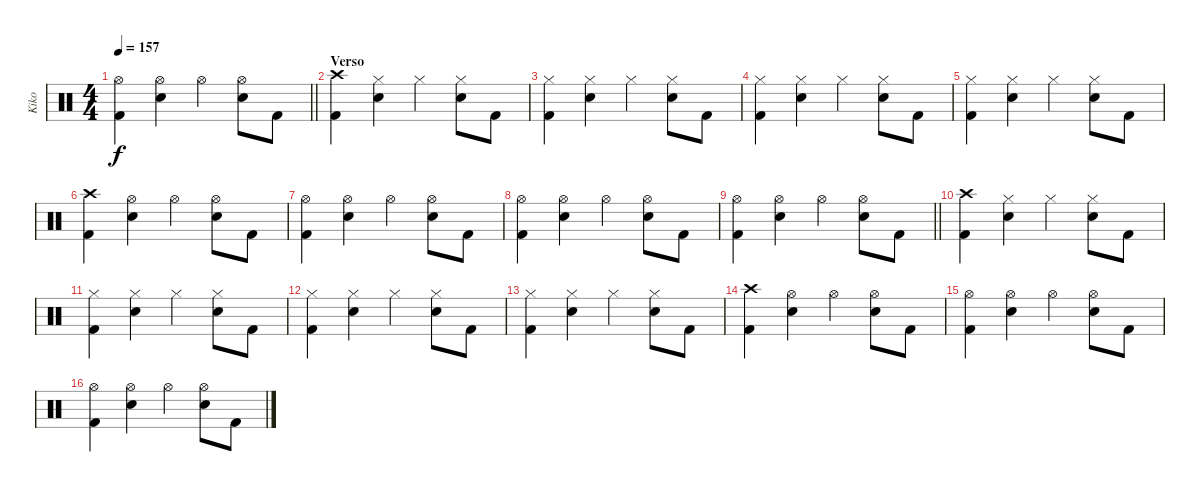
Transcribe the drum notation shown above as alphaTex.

\track ("Kiko" "Kiko") {instrument percussion}
\staff {score}
\articulation defaults
\ts (4 4)
\tempo 157
\clef neutral
\barLineRight lightlight
\ks c
("Hi-Hat (open)" "Kick (hit) 2").4{dy f} ("Hi-Hat (open)" "Electric Snare (hit)").4 "Hi-Hat (open)".4 ("Hi-Hat (open)" "Electric Snare (hit)").8 "Kick (hit) 2".8 |
\section ("" "Verso")
("Crash high (hit)" "Kick (hit) 2").4 ("Hi-Hat (closed)" "Electric Snare (hit)").4 "Hi-Hat (closed)".4 ("Hi-Hat (closed)" "Electric Snare (hit)").8 "Kick (hit) 2".8 |
("Hi-Hat (closed)" "Kick (hit) 2").4 ("Hi-Hat (closed)" "Electric Snare (hit)").4 "Hi-Hat (closed)".4 ("Hi-Hat (closed)" "Electric Snare (hit)").8 "Kick (hit) 2".8 |
("Hi-Hat (closed)" "Kick (hit) 2").4 ("Hi-Hat (closed)" "Electric Snare (hit)").4 "Hi-Hat (closed)".4 ("Hi-Hat (closed)" "Electric Snare (hit)").8 "Kick (hit) 2".8 |
("Hi-Hat (closed)" "Kick (hit) 2").4 ("Hi-Hat (closed)" "Electric Snare (hit)").4 "Hi-Hat (closed)".4 ("Hi-Hat (closed)" "Electric Snare (hit)").8 "Kick (hit) 2".8 |
("Crash high (hit)" "Kick (hit) 2").4 ("Hi-Hat (open)" "Electric Snare (hit)").4 "Hi-Hat (open)".4 ("Hi-Hat (open)" "Electric Snare (hit)").8 "Kick (hit) 2".8 |
("Hi-Hat (open)" "Kick (hit) 2").4 ("Hi-Hat (open)" "Electric Snare (hit)").4 "Hi-Hat (open)".4 ("Hi-Hat (open)" "Electric Snare (hit)").8 "Kick (hit) 2".8 |
("Hi-Hat (open)" "Kick (hit) 2").4 ("Hi-Hat (open)" "Electric Snare (hit)").4 "Hi-Hat (open)".4 ("Hi-Hat (open)" "Electric Snare (hit)").8 "Kick (hit) 2".8 |
\barLineRight lightlight
("Hi-Hat (open)" "Kick (hit) 2").4 ("Hi-Hat (open)" "Electric Snare (hit)").4 "Hi-Hat (open)".4 ("Hi-Hat (open)" "Electric Snare (hit)").8 "Kick (hit) 2".8 |
("Crash high (hit)" "Kick (hit) 2").4 ("Hi-Hat (closed)" "Electric Snare (hit)").4 "Hi-Hat (closed)".4 ("Hi-Hat (closed)" "Electric Snare (hit)").8 "Kick (hit) 2".8 |
("Hi-Hat (closed)" "Kick (hit) 2").4 ("Hi-Hat (closed)" "Electric Snare (hit)").4 "Hi-Hat (closed)".4 ("Hi-Hat (closed)" "Electric Snare (hit)").8 "Kick (hit) 2".8 |
("Hi-Hat (closed)" "Kick (hit) 2").4 ("Hi-Hat (closed)" "Electric Snare (hit)").4 "Hi-Hat (closed)".4 ("Hi-Hat (closed)" "Electric Snare (hit)").8 "Kick (hit) 2".8 |
("Hi-Hat (closed)" "Kick (hit) 2").4 ("Hi-Hat (closed)" "Electric Snare (hit)").4 "Hi-Hat (closed)".4 ("Hi-Hat (closed)" "Electric Snare (hit)").8 "Kick (hit) 2".8 |
("Crash high (hit)" "Kick (hit) 2").4 ("Hi-Hat (open)" "Electric Snare (hit)").4 "Hi-Hat (open)".4 ("Hi-Hat (open)" "Electric Snare (hit)").8 "Kick (hit) 2".8 |
("Hi-Hat (open)" "Kick (hit) 2").4 ("Hi-Hat (open)" "Electric Snare (hit)").4 "Hi-Hat (open)".4 ("Hi-Hat (open)" "Electric Snare (hit)").8 "Kick (hit) 2".8 |
("Hi-Hat (open)" "Kick (hit) 2").4 ("Hi-Hat (open)" "Electric Snare (hit)").4 "Hi-Hat (open)".4 ("Hi-Hat (open)" "Electric Snare (hit)").8 "Kick (hit) 2".8
